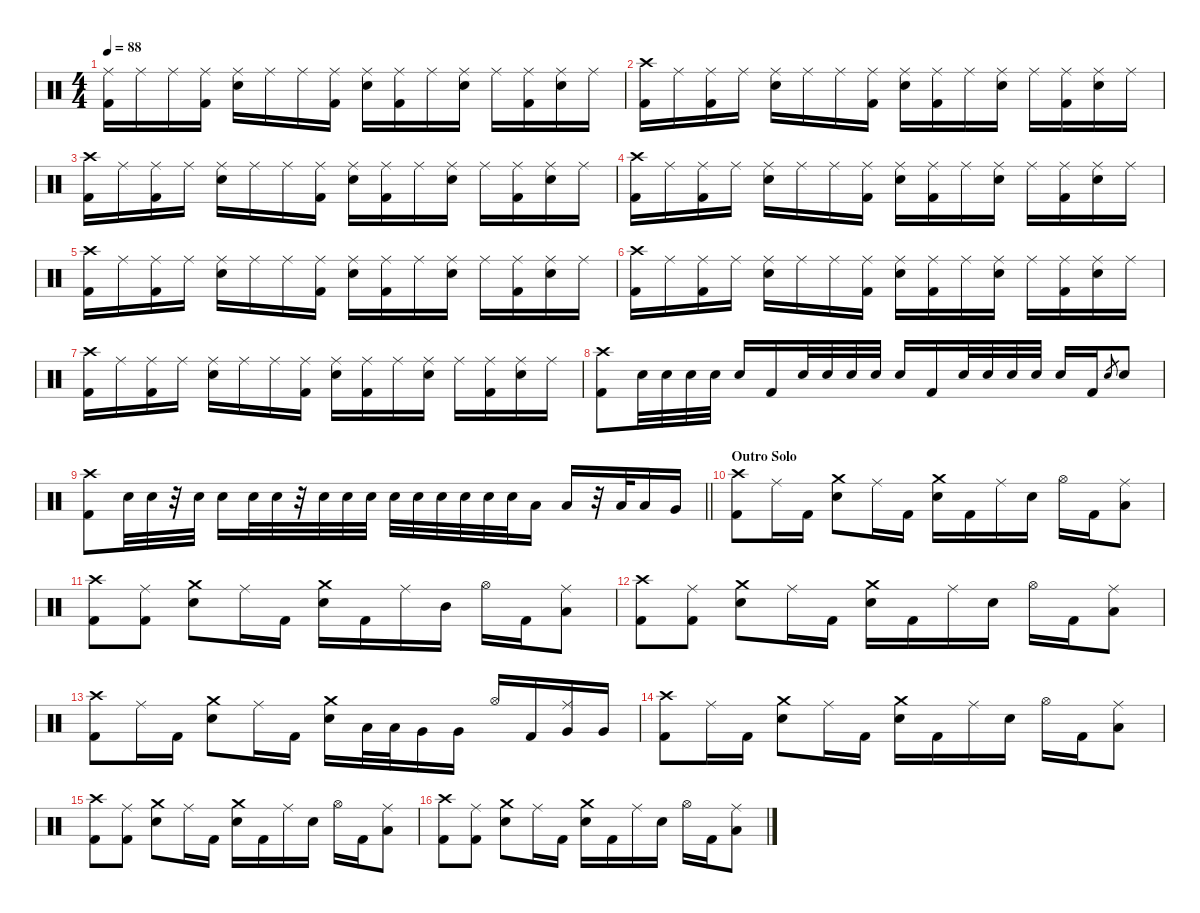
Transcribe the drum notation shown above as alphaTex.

\defaultSystemsLayout 4
\hideDynamics
\bracketExtendMode nobrackets
\singleTrackTrackNamePolicy hidden
\multiTrackTrackNamePolicy hidden
\firstSystemTrackNameMode fullname
\firstSystemTrackNameOrientation horizontal
\otherSystemsTrackNameOrientation horizontal
\track ("Drums" "drm.") {instrument percussion}
\staff {score}
\articulation defaults
\ts (4 4)
\tempo 88
\clef neutral
\ks c
("Ride (middle)" "Kick (hit) 2").16{dy f beam Down} "Ride (middle)".16{beam Down} "Ride (middle)".16{beam Down} ("Ride (middle)" "Kick (hit) 2").16{beam Down} ("Ride (middle)" "Snare (hit) 2").16{beam Down} "Ride (middle)".16{beam Down} "Ride (middle)".16{beam Down} ("Ride (middle)" "Kick (hit) 2").16{beam Down} ("Ride (middle)" "Snare (hit) 2").16{beam Down} ("Ride (middle)" "Kick (hit) 2").16{beam Down} "Ride (middle)".16{beam Down} ("Ride (middle)" "Snare (hit) 2").16{beam Down} "Ride (middle)".16{beam Down} ("Ride (middle)" "Kick (hit) 2").16{beam Down} ("Ride (middle)" "Snare (hit) 2").16{beam Down} "Ride (middle)".16{beam Down} |
("Crash high (hit)" "Kick (hit) 2").16{beam Down} "Ride (middle)".16{beam Down} ("Ride (middle)" "Kick (hit) 2").16{beam Down} "Ride (middle)".16{beam Down} ("Ride (middle)" "Snare (hit) 2").16{beam Down} "Ride (middle)".16{beam Down} "Ride (middle)".16{beam Down} ("Ride (middle)" "Kick (hit) 2").16{beam Down} ("Ride (middle)" "Snare (hit) 2").16{beam Down} ("Ride (middle)" "Kick (hit) 2").16{beam Down} "Ride (middle)".16{beam Down} ("Ride (middle)" "Snare (hit) 2").16{beam Down} "Ride (middle)".16{beam Down} ("Ride (middle)" "Kick (hit) 2").16{beam Down} ("Ride (middle)" "Snare (hit) 2").16{beam Down} "Ride (middle)".16{beam Down} |
("Crash high (hit)" "Kick (hit) 2").16{beam Down} "Ride (middle)".16{beam Down} ("Ride (middle)" "Kick (hit) 2").16{beam Down} "Ride (middle)".16{beam Down} ("Ride (middle)" "Snare (hit) 2").16{beam Down} "Ride (middle)".16{beam Down} "Ride (middle)".16{beam Down} ("Ride (middle)" "Kick (hit) 2").16{beam Down} ("Ride (middle)" "Snare (hit) 2").16{beam Down} ("Ride (middle)" "Kick (hit) 2").16{beam Down} "Ride (middle)".16{beam Down} ("Ride (middle)" "Snare (hit) 2").16{beam Down} "Ride (middle)".16{beam Down} ("Ride (middle)" "Kick (hit) 2").16{beam Down} ("Ride (middle)" "Snare (hit) 2").16{beam Down} "Ride (middle)".16{beam Down} |
("Crash high (hit)" "Kick (hit) 2").16{beam Down} "Ride (middle)".16{beam Down} ("Ride (middle)" "Kick (hit) 2").16{beam Down} "Ride (middle)".16{beam Down} ("Ride (middle)" "Snare (hit) 2").16{beam Down} "Ride (middle)".16{beam Down} "Ride (middle)".16{beam Down} ("Ride (middle)" "Kick (hit) 2").16{beam Down} ("Ride (middle)" "Snare (hit) 2").16{beam Down} ("Ride (middle)" "Kick (hit) 2").16{beam Down} "Ride (middle)".16{beam Down} ("Ride (middle)" "Snare (hit) 2").16{beam Down} "Ride (middle)".16{beam Down} ("Ride (middle)" "Kick (hit) 2").16{beam Down} ("Ride (middle)" "Snare (hit) 2").16{beam Down} "Ride (middle)".16{beam Down} |
("Crash high (hit)" "Kick (hit) 2").16{beam Down} "Ride (middle)".16{beam Down} ("Ride (middle)" "Kick (hit) 2").16{beam Down} "Ride (middle)".16{beam Down} ("Ride (middle)" "Snare (hit) 2").16{beam Down} "Ride (middle)".16{beam Down} "Ride (middle)".16{beam Down} ("Ride (middle)" "Kick (hit) 2").16{beam Down} ("Ride (middle)" "Snare (hit) 2").16{beam Down} ("Ride (middle)" "Kick (hit) 2").16{beam Down} "Ride (middle)".16{beam Down} ("Ride (middle)" "Snare (hit) 2").16{beam Down} "Ride (middle)".16{beam Down} ("Ride (middle)" "Kick (hit) 2").16{beam Down} ("Ride (middle)" "Snare (hit) 2").16{beam Down} "Ride (middle)".16{beam Down} |
("Crash high (hit)" "Kick (hit) 2").16{beam Down} "Ride (middle)".16{beam Down} ("Ride (middle)" "Kick (hit) 2").16{beam Down} "Ride (middle)".16{beam Down} ("Ride (middle)" "Snare (hit) 2").16{beam Down} "Ride (middle)".16{beam Down} "Ride (middle)".16{beam Down} ("Ride (middle)" "Kick (hit) 2").16{beam Down} ("Ride (middle)" "Snare (hit) 2").16{beam Down} ("Ride (middle)" "Kick (hit) 2").16{beam Down} "Ride (middle)".16{beam Down} ("Ride (middle)" "Snare (hit) 2").16{beam Down} "Ride (middle)".16{beam Down} ("Ride (middle)" "Kick (hit) 2").16{beam Down} ("Ride (middle)" "Snare (hit) 2").16{beam Down} "Ride (middle)".16{beam Down} |
("Crash high (hit)" "Kick (hit) 2").16{beam Down} "Ride (middle)".16{beam Down} ("Ride (middle)" "Kick (hit) 2").16{beam Down} "Ride (middle)".16{beam Down} ("Ride (middle)" "Snare (hit) 2").16{beam Down} "Ride (middle)".16{beam Down} "Ride (middle)".16{beam Down} ("Ride (middle)" "Kick (hit) 2").16{beam Down} ("Ride (middle)" "Snare (hit) 2").16{beam Down} ("Ride (middle)" "Kick (hit) 2").16{beam Down} "Ride (middle)".16{beam Down} ("Ride (middle)" "Snare (hit) 2").16{beam Down} "Ride (middle)".16{beam Down} ("Ride (middle)" "Kick (hit) 2").16{beam Down} ("Ride (middle)" "Snare (hit) 2").16{beam Down} "Ride (middle)".16{beam Down} |
("Crash high (hit)" "Kick (hit) 2").8{beam Down} "Snare (hit) 2".32{beam Down} "Snare (hit) 2".32{beam Down} "Snare (hit) 2".32{beam Down} "Snare (hit) 2".32{beam Down} "Snare (hit) 2".16{beam Up} "Kick (hit) 2".16{beam Up} "Snare (hit) 2".32{beam Up} "Snare (hit) 2".32{beam Up} "Snare (hit) 2".32{beam Up} "Snare (hit) 2".32{beam Up} "Snare (hit) 2".16{beam Up} "Kick (hit) 2".16{beam Up} "Snare (hit) 2".32{beam Up} "Snare (hit) 2".32{beam Up} "Snare (hit) 2".32{beam Up} "Snare (hit) 2".32{beam Up} "Snare (hit) 2".16{beam Up} "Kick (hit) 2".16{beam Up} "Snare (hit) 2".8{gr dy mf beam Up} "Snare (hit) 2".8{dy f beam Up} |
\barLineRight lightlight
("Crash high (hit)" "Kick (hit) 2").8{beam Down} "Snare (hit) 2".32{beam Down} "Snare (hit) 2".32{beam Down} r.32{beam Down} "Snare (hit) 2".32{beam Down} "Snare (hit) 2".16{beam Down} "Snare (hit) 2".32{beam Down} "Snare (hit) 2".32{beam Down} r.32{beam Down} "Snare (hit) 2".32{beam Down} "Snare (hit) 2".32{beam Down} "Snare (hit) 2".32{beam Down} "Snare (hit) 2".32{beam Down} "Snare (hit) 2".32{beam Down} "Snare (hit) 2".32{beam Down} "Snare (hit) 2".32{beam Down} "Snare (hit) 2".32{beam Down} "Snare (hit) 2".32{beam Down} "Low Tom (hit)".16{beam Down} "Low Tom (hit)".16{beam Up} r.32{beam Up} "Low Tom (hit)".32{beam Up} "Low Tom (hit)".16{beam Up} "Very Low Tom (hit)".16{beam Up} |
\section ("" "Outro Solo")
("Crash high (hit)" "Kick (hit) 2").8{beam Down} "Ride (middle)".16{beam Down} "Kick (hit) 2".16{beam Down} ("Crash medium (hit)" "Snare (hit) 2").8{beam Down} "Ride (middle)".16{beam Down} "Kick (hit) 2".16{beam Down} ("Crash medium (hit)" "Snare (hit) 2").16{beam Down} "Kick (hit) 2".16{beam Down} "Ride (middle)".16{beam Down} "Snare (hit) 2".16{beam Down} "Hi-Hat (open)".16{beam Down} "Kick (hit) 2".16{beam Down} ("Ride (middle)" "Low Tom (hit)").8{beam Down} |
("Crash high (hit)" "Kick (hit) 2").8{beam Down} ("Ride (middle)" "Kick (hit) 2").8{beam Down} ("Crash medium (hit)" "Snare (hit) 2").8{beam Down} "Ride (middle)".16{beam Down} "Kick (hit) 2".16{beam Down} ("Crash medium (hit)" "Snare (hit) 2").16{beam Down} "Kick (hit) 2".16{beam Down} "Ride (middle)".16{beam Down} "Mid Tom (hit)".16{beam Down} "Hi-Hat (open)".16{beam Down} "Kick (hit) 2".16{beam Down} ("Ride (middle)" "Low Tom (hit)").8{beam Down} |
("Crash high (hit)" "Kick (hit) 2").8{beam Down} ("Ride (middle)" "Kick (hit) 2").8{beam Down} ("Crash medium (hit)" "Snare (hit) 2").8{beam Down} "Ride (middle)".16{beam Down} "Kick (hit) 2".16{beam Down} ("Crash medium (hit)" "Snare (hit) 2").16{beam Down} "Kick (hit) 2".16{beam Down} "Ride (middle)".16{beam Down} "Snare (hit) 2".16{beam Down} "Hi-Hat (open)".16{beam Down} "Kick (hit) 2".16{beam Down} ("Ride (middle)" "Low Tom (hit)").8{beam Down} |
("Crash high (hit)" "Kick (hit) 2").8{beam Down} "Ride (middle)".16{beam Down} "Kick (hit) 2".16{beam Down} ("Crash medium (hit)" "Snare (hit) 2").8{beam Down} "Ride (middle)".16{beam Down} "Kick (hit) 2".16{beam Down} ("Crash medium (hit)" "Snare (hit) 2").16{beam Down} "Low Tom (hit)".32{beam Down} "Low Tom (hit)".32{beam Down} "Very Low Tom (hit)".16{beam Down} "Very Low Tom (hit)".16{beam Down} "Hi-Hat (open)".16{beam Up} "Kick (hit) 2".16{beam Up} ("Ride (middle)" "Very Low Tom (hit)").16{beam Up} "Very Low Tom (hit)".16{beam Up} |
("Crash high (hit)" "Kick (hit) 2").8{beam Down} "Ride (middle)".16{beam Down} "Kick (hit) 2".16{beam Down} ("Crash medium (hit)" "Snare (hit) 2").8{beam Down} "Ride (middle)".16{beam Down} "Kick (hit) 2".16{beam Down} ("Crash medium (hit)" "Snare (hit) 2").16{beam Down} "Kick (hit) 2".16{beam Down} "Ride (middle)".16{beam Down} "Snare (hit) 2".16{beam Down} "Hi-Hat (open)".16{beam Down} "Kick (hit) 2".16{beam Down} ("Ride (middle)" "Low Tom (hit)").8{beam Down} |
("Crash high (hit)" "Kick (hit) 2").8{beam Down} ("Ride (middle)" "Kick (hit) 2").8{beam Down} ("Crash medium (hit)" "Snare (hit) 2").8{beam Down} "Ride (middle)".16{beam Down} "Kick (hit) 2".16{beam Down} ("Crash medium (hit)" "Snare (hit) 2").16{beam Down} "Kick (hit) 2".16{beam Down} "Ride (middle)".16{beam Down} "Snare (hit) 2".16{beam Down} "Hi-Hat (open)".16{beam Down} "Kick (hit) 2".16{beam Down} ("Ride (middle)" "Low Tom (hit)").8{beam Down} |
("Crash high (hit)" "Kick (hit) 2").8{beam Down} ("Ride (middle)" "Kick (hit) 2").8{beam Down} ("Crash medium (hit)" "Snare (hit) 2").8{beam Down} "Ride (middle)".16{beam Down} "Kick (hit) 2".16{beam Down} ("Crash medium (hit)" "Snare (hit) 2").16{beam Down} "Kick (hit) 2".16{beam Down} "Ride (middle)".16{beam Down} "Snare (hit) 2".16{beam Down} "Hi-Hat (open)".16{beam Down} "Kick (hit) 2".16{beam Down} ("Ride (middle)" "Low Tom (hit)").8{beam Down}
